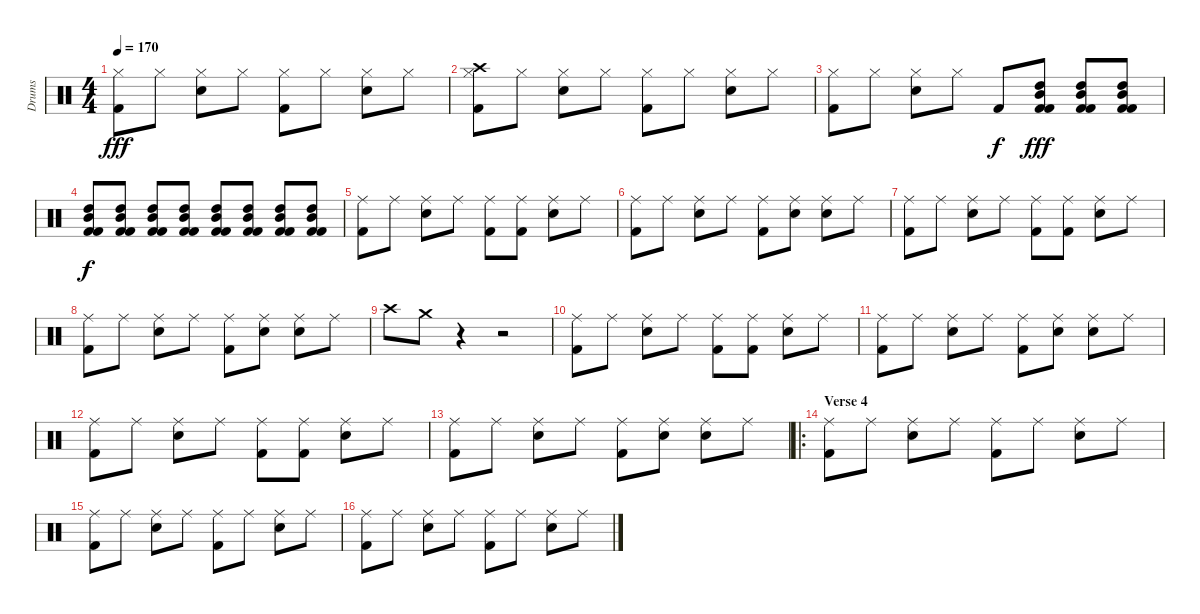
\track ("Drums" "Drums") {instrument percussion}
\staff {score}
\articulation defaults
\ts (4 4)
\tempo 170
\clef neutral
\ks c
("Hi-Hat (closed)" "Kick (hit) 2").8{dy fff} "Hi-Hat (closed)".8 ("Hi-Hat (closed)" "Electric Snare (hit)").8 "Hi-Hat (closed)".8 ("Hi-Hat (closed)" "Kick (hit) 2").8 "Hi-Hat (closed)".8 ("Hi-Hat (closed)" "Electric Snare (hit)").8 "Hi-Hat (closed)".8 |
("Crash high (hit)" "Hi-Hat (closed)" "Kick (hit) 2").8 "Hi-Hat (closed)".8 ("Hi-Hat (closed)" "Electric Snare (hit)").8 "Hi-Hat (closed)".8 ("Hi-Hat (closed)" "Kick (hit) 2").8 "Hi-Hat (closed)".8 ("Hi-Hat (closed)" "Electric Snare (hit)").8 "Hi-Hat (closed)".8 |
("Hi-Hat (closed)" "Kick (hit) 2").8 "Hi-Hat (closed)".8 ("Hi-Hat (closed)" "Electric Snare (hit)").8 "Hi-Hat (closed)".8 "Kick (hit) 2".8{dy f} ("High Tom (hit)" "Kick (hit) 2" "Mid Tom (hit)" "Kick (hit) 2").8{dy fff} ("High Tom (hit)" "Kick (hit) 2" "Mid Tom (hit)" "Kick (hit) 2").8 ("High Tom (hit)" "Kick (hit) 2" "Mid Tom (hit)" "Kick (hit) 2").8 |
("High Tom (hit)" "Kick (hit) 2" "Mid Tom (hit)" "Kick (hit) 2").8{dy f} ("High Tom (hit)" "Kick (hit) 2" "Mid Tom (hit)" "Kick (hit) 2").8 ("High Tom (hit)" "Kick (hit) 2" "Mid Tom (hit)" "Kick (hit) 2").8 ("High Tom (hit)" "Kick (hit) 2" "Mid Tom (hit)" "Kick (hit) 2").8 ("High Tom (hit)" "Kick (hit) 2" "Mid Tom (hit)" "Kick (hit) 2").8 ("High Tom (hit)" "Kick (hit) 2" "Mid Tom (hit)" "Kick (hit) 2").8 ("High Tom (hit)" "Kick (hit) 2" "Mid Tom (hit)" "Kick (hit) 2").8 ("High Tom (hit)" "Kick (hit) 2" "Mid Tom (hit)" "Kick (hit) 2").8 |
("Ride (middle)" "Kick (hit) 2").8 "Ride (middle)".8 ("Ride (middle)" "Snare (hit) 2").8 "Ride (middle)".8 ("Ride (middle)" "Kick (hit) 2").8 ("Ride (middle)" "Kick (hit) 2").8 ("Ride (middle)" "Snare (hit) 2").8 "Ride (middle)".8 |
("Ride (middle)" "Kick (hit) 2").8 "Ride (middle)".8 ("Ride (middle)" "Snare (hit) 2").8 "Ride (middle)".8 ("Ride (middle)" "Kick (hit) 2").8 ("Ride (middle)" "Snare (hit) 2").8 ("Ride (middle)" "Snare (hit) 2").8 "Ride (middle)".8 |
("Ride (middle)" "Kick (hit) 2").8 "Ride (middle)".8 ("Ride (middle)" "Snare (hit) 2").8 "Ride (middle)".8 ("Ride (middle)" "Kick (hit) 2").8 ("Ride (middle)" "Kick (hit) 2").8 ("Ride (middle)" "Snare (hit) 2").8 "Ride (middle)".8 |
("Ride (middle)" "Kick (hit) 2").8 "Ride (middle)".8 ("Ride (middle)" "Snare (hit) 2").8 "Ride (middle)".8 ("Ride (middle)" "Kick (hit) 2").8 ("Ride (middle)" "Snare (hit) 2").8 ("Ride (middle)" "Snare (hit) 2").8 "Ride (middle)".8 |
"Crash high (hit)".8 "Crash medium (hit)".8 r.4 r.2 |
("Ride (middle)" "Kick (hit) 2").8 "Ride (middle)".8 ("Ride (middle)" "Snare (hit) 2").8 "Ride (middle)".8 ("Ride (middle)" "Kick (hit) 2").8 ("Ride (middle)" "Kick (hit) 2").8 ("Ride (middle)" "Snare (hit) 2").8 "Ride (middle)".8 |
("Ride (middle)" "Kick (hit) 2").8 "Ride (middle)".8 ("Ride (middle)" "Snare (hit) 2").8 "Ride (middle)".8 ("Ride (middle)" "Kick (hit) 2").8 ("Ride (middle)" "Snare (hit) 2").8 ("Ride (middle)" "Snare (hit) 2").8 "Ride (middle)".8 |
("Ride (middle)" "Kick (hit) 2").8 "Ride (middle)".8 ("Ride (middle)" "Snare (hit) 2").8 "Ride (middle)".8 ("Ride (middle)" "Kick (hit) 2").8 ("Ride (middle)" "Kick (hit) 2").8 ("Ride (middle)" "Snare (hit) 2").8 "Ride (middle)".8 |
("Ride (middle)" "Kick (hit) 2").8 "Ride (middle)".8 ("Ride (middle)" "Snare (hit) 2").8 "Ride (middle)".8 ("Ride (middle)" "Kick (hit) 2").8 ("Ride (middle)" "Snare (hit) 2").8 ("Ride (middle)" "Snare (hit) 2").8 "Ride (middle)".8 |
\ro
\section ("" "Verse 4")
("Ride (middle)" "Kick (hit) 2").8 "Ride (middle)".8 ("Ride (middle)" "Snare (hit) 2").8 "Ride (middle)".8 ("Ride (middle)" "Kick (hit) 2").8 "Ride (middle)".8 ("Ride (middle)" "Snare (hit) 2").8 "Ride (middle)".8 |
("Ride (middle)" "Kick (hit) 2").8 "Ride (middle)".8 ("Ride (middle)" "Snare (hit) 2").8 "Ride (middle)".8 ("Ride (middle)" "Kick (hit) 2").8 "Ride (middle)".8 ("Ride (middle)" "Snare (hit) 2").8 "Ride (middle)".8 |
("Ride (middle)" "Kick (hit) 2").8 "Ride (middle)".8 ("Ride (middle)" "Snare (hit) 2").8 "Ride (middle)".8 ("Ride (middle)" "Kick (hit) 2").8 "Ride (middle)".8 ("Ride (middle)" "Snare (hit) 2").8 "Ride (middle)".8
